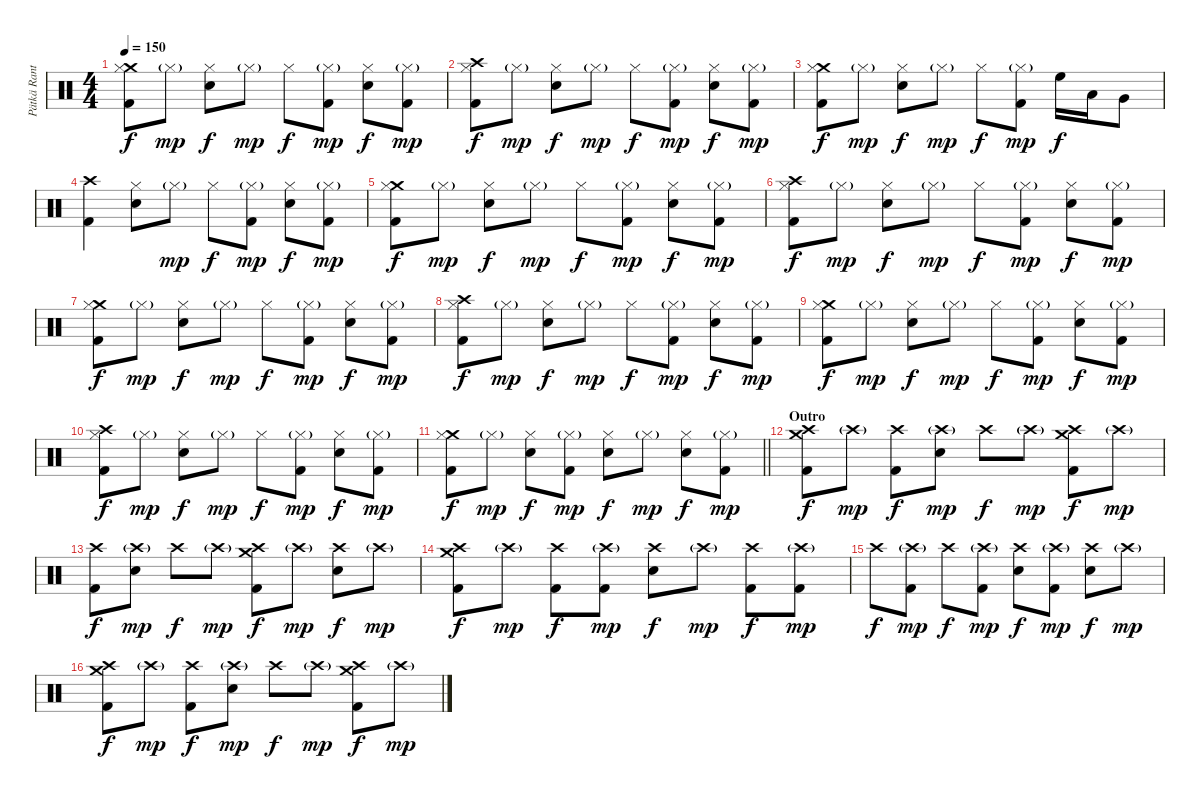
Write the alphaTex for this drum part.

\track ("Pätkä Rantala (Drums)" "Pätkä Rant") {instrument percussion}
\staff {score}
\articulation defaults
\ts (4 4)
\tempo 150
\clef neutral
\ks c
("Crash medium (hit)" "Hi-Hat (closed)" "Kick (hit) 2").8{dy f} "Hi-Hat (closed)"{g}.8{dy mp} ("Hi-Hat (closed)" "Snare (hit) 2").8{dy f} "Hi-Hat (closed)"{g}.8{dy mp} "Hi-Hat (closed)".8{dy f} ("Hi-Hat (closed)"{g} "Kick (hit) 2").8{dy mp} ("Hi-Hat (closed)" "Snare (hit) 2").8{dy f} ("Hi-Hat (closed)"{g} "Kick (hit) 2").8{dy mp} |
("Crash high (hit)" "Hi-Hat (closed)" "Kick (hit) 2").8{dy f} "Hi-Hat (closed)"{g}.8{dy mp} ("Hi-Hat (closed)" "Snare (hit) 2").8{dy f} "Hi-Hat (closed)"{g}.8{dy mp} "Hi-Hat (closed)".8{dy f} ("Hi-Hat (closed)"{g} "Kick (hit) 2").8{dy mp} ("Hi-Hat (closed)" "Snare (hit) 2").8{dy f} ("Hi-Hat (closed)"{g} "Kick (hit) 2").8{dy mp} |
("Crash medium (hit)" "Hi-Hat (closed)" "Kick (hit) 2").8{dy f} "Hi-Hat (closed)"{g}.8{dy mp} ("Hi-Hat (closed)" "Snare (hit) 2").8{dy f} "Hi-Hat (closed)"{g}.8{dy mp} "Hi-Hat (closed)".8{dy f} ("Hi-Hat (closed)"{g} "Kick (hit) 2").8{dy mp} "High Floor Tom (hit)".16{dy f} "Low Tom (hit)".16 "Very Low Tom (hit)".8 |
("Crash high (hit)" "Kick (hit) 2").4 ("Hi-Hat (closed)" "Snare (hit) 2").8 "Hi-Hat (closed)"{g}.8{dy mp} "Hi-Hat (closed)".8{dy f} ("Hi-Hat (closed)"{g} "Kick (hit) 2").8{dy mp} ("Hi-Hat (closed)" "Snare (hit) 2").8{dy f} ("Hi-Hat (closed)"{g} "Kick (hit) 2").8{dy mp} |
("Crash medium (hit)" "Hi-Hat (closed)" "Kick (hit) 2").8{dy f} "Hi-Hat (closed)"{g}.8{dy mp} ("Hi-Hat (closed)" "Snare (hit) 2").8{dy f} "Hi-Hat (closed)"{g}.8{dy mp} "Hi-Hat (closed)".8{dy f} ("Hi-Hat (closed)"{g} "Kick (hit) 2").8{dy mp} ("Hi-Hat (closed)" "Snare (hit) 2").8{dy f} ("Hi-Hat (closed)"{g} "Kick (hit) 2").8{dy mp} |
("Crash high (hit)" "Hi-Hat (closed)" "Kick (hit) 2").8{dy f} "Hi-Hat (closed)"{g}.8{dy mp} ("Hi-Hat (closed)" "Snare (hit) 2").8{dy f} "Hi-Hat (closed)"{g}.8{dy mp} "Hi-Hat (closed)".8{dy f} ("Hi-Hat (closed)"{g} "Kick (hit) 2").8{dy mp} ("Hi-Hat (closed)" "Snare (hit) 2").8{dy f} ("Hi-Hat (closed)"{g} "Kick (hit) 2").8{dy mp} |
("Crash medium (hit)" "Hi-Hat (closed)" "Kick (hit) 2").8{dy f} "Hi-Hat (closed)"{g}.8{dy mp} ("Hi-Hat (closed)" "Snare (hit) 2").8{dy f} "Hi-Hat (closed)"{g}.8{dy mp} "Hi-Hat (closed)".8{dy f} ("Hi-Hat (closed)"{g} "Kick (hit) 2").8{dy mp} ("Hi-Hat (closed)" "Snare (hit) 2").8{dy f} ("Hi-Hat (closed)"{g} "Kick (hit) 2").8{dy mp} |
("Crash high (hit)" "Hi-Hat (closed)" "Kick (hit) 2").8{dy f} "Hi-Hat (closed)"{g}.8{dy mp} ("Hi-Hat (closed)" "Snare (hit) 2").8{dy f} "Hi-Hat (closed)"{g}.8{dy mp} "Hi-Hat (closed)".8{dy f} ("Hi-Hat (closed)"{g} "Kick (hit) 2").8{dy mp} ("Hi-Hat (closed)" "Snare (hit) 2").8{dy f} ("Hi-Hat (closed)"{g} "Kick (hit) 2").8{dy mp} |
("Crash medium (hit)" "Hi-Hat (closed)" "Kick (hit) 2").8{dy f} "Hi-Hat (closed)"{g}.8{dy mp} ("Hi-Hat (closed)" "Snare (hit) 2").8{dy f} "Hi-Hat (closed)"{g}.8{dy mp} "Hi-Hat (closed)".8{dy f} ("Hi-Hat (closed)"{g} "Kick (hit) 2").8{dy mp} ("Hi-Hat (closed)" "Snare (hit) 2").8{dy f} ("Hi-Hat (closed)"{g} "Kick (hit) 2").8{dy mp} |
("Crash high (hit)" "Hi-Hat (closed)" "Kick (hit) 2").8{dy f} "Hi-Hat (closed)"{g}.8{dy mp} ("Hi-Hat (closed)" "Snare (hit) 2").8{dy f} "Hi-Hat (closed)"{g}.8{dy mp} "Hi-Hat (closed)".8{dy f} ("Hi-Hat (closed)"{g} "Kick (hit) 2").8{dy mp} ("Hi-Hat (closed)" "Snare (hit) 2").8{dy f} ("Hi-Hat (closed)"{g} "Kick (hit) 2").8{dy mp} |
\barLineRight lightlight
("Crash medium (hit)" "Hi-Hat (closed)" "Kick (hit) 2").8{dy f} "Hi-Hat (closed)"{g}.8{dy mp} ("Hi-Hat (closed)" "Snare (hit) 2").8{dy f} ("Hi-Hat (closed)"{g} "Kick (hit) 2").8{dy mp} ("Hi-Hat (closed)" "Snare (hit) 2").8{dy f} "Hi-Hat (closed)"{g}.8{dy mp} ("Hi-Hat (closed)" "Snare (hit) 2").8{dy f} ("Hi-Hat (closed)"{g} "Kick (hit) 2").8{dy mp} |
\section ("" "Outro")
("Crash medium (hit)" "Crash high (hit)" "Kick (hit) 2").8{dy f} "Crash high (hit)"{g}.8{dy mp} ("Crash high (hit)" "Kick (hit) 2").8{dy f} ("Crash high (hit)"{g} "Snare (hit) 2").8{dy mp} "Crash high (hit)".8{dy f} "Crash high (hit)"{g}.8{dy mp} ("Crash medium (hit)" "Crash high (hit)" "Kick (hit) 2").8{dy f} "Crash high (hit)"{g}.8{dy mp} |
("Crash high (hit)" "Kick (hit) 2").8{dy f} ("Crash high (hit)"{g} "Snare (hit) 2").8{dy mp} "Crash high (hit)".8{dy f} "Crash high (hit)"{g}.8{dy mp} ("Crash medium (hit)" "Crash high (hit)" "Kick (hit) 2").8{dy f} "Crash high (hit)"{g}.8{dy mp} ("Crash high (hit)" "Snare (hit) 2").8{dy f} "Crash high (hit)"{g}.8{dy mp} |
("Crash medium (hit)" "Crash high (hit)" "Kick (hit) 2").8{dy f} "Crash high (hit)"{g}.8{dy mp} ("Crash high (hit)" "Kick (hit) 2").8{dy f} ("Crash high (hit)"{g} "Kick (hit) 2").8{dy mp} ("Crash high (hit)" "Snare (hit) 2").8{dy f} "Crash high (hit)"{g}.8{dy mp} ("Crash high (hit)" "Kick (hit) 2").8{dy f} ("Crash high (hit)"{g} "Kick (hit) 2").8{dy mp} |
"Crash high (hit)".8{dy f} ("Crash high (hit)"{g} "Kick (hit) 2").8{dy mp} "Crash high (hit)".8{dy f} ("Crash high (hit)"{g} "Kick (hit) 2").8{dy mp} ("Crash high (hit)" "Snare (hit) 2").8{dy f} ("Crash high (hit)"{g} "Kick (hit) 2").8{dy mp} ("Crash high (hit)" "Snare (hit) 2").8{dy f} "Crash high (hit)"{g}.8{dy mp} |
("Crash medium (hit)" "Crash high (hit)" "Kick (hit) 2").8{dy f} "Crash high (hit)"{g}.8{dy mp} ("Crash high (hit)" "Kick (hit) 2").8{dy f} ("Crash high (hit)"{g} "Snare (hit) 2").8{dy mp} "Crash high (hit)".8{dy f} "Crash high (hit)"{g}.8{dy mp} ("Crash medium (hit)" "Crash high (hit)" "Kick (hit) 2").8{dy f} "Crash high (hit)"{g}.8{dy mp}
